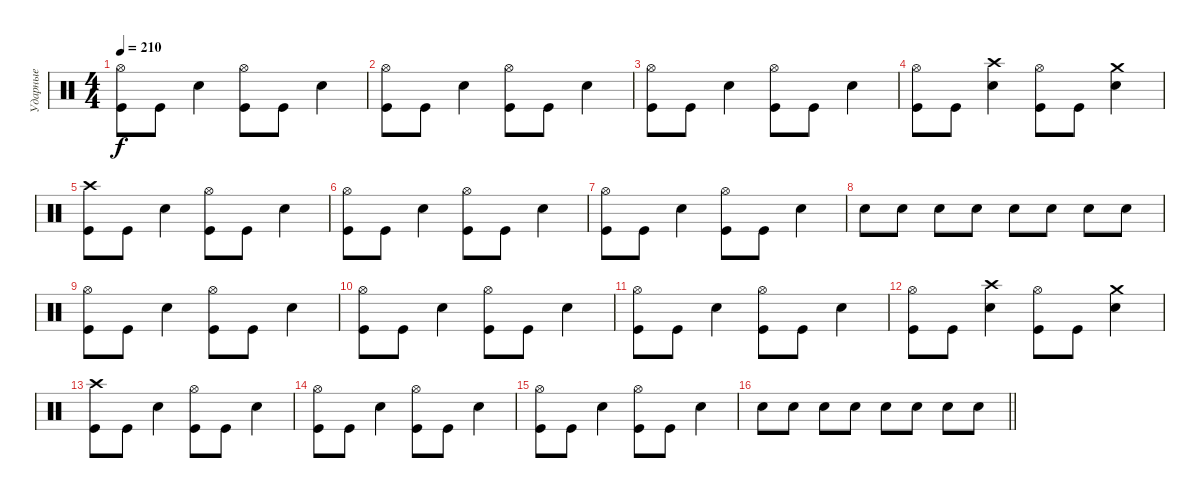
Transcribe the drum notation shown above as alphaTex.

\track ("Ударные" "Ударные") {instrument percussion}
\staff {score}
\articulation defaults
\ts (4 4)
\tempo 210
\clef neutral
\ks c
("Hi-Hat (open)" "Kick (hit)").8{dy f} "Kick (hit)".8 "Snare (hit) 2".4 ("Hi-Hat (open)" "Kick (hit)").8 "Kick (hit)".8 "Snare (hit) 2".4 |
("Hi-Hat (open)" "Kick (hit)").8 "Kick (hit)".8 "Snare (hit) 2".4 ("Hi-Hat (open)" "Kick (hit)").8 "Kick (hit)".8 "Snare (hit) 2".4 |
("Hi-Hat (open)" "Kick (hit)").8 "Kick (hit)".8 "Snare (hit) 2".4 ("Hi-Hat (open)" "Kick (hit)").8 "Kick (hit)".8 "Snare (hit) 2".4 |
("Hi-Hat (open)" "Kick (hit)").8 "Kick (hit)".8 ("Crash high (hit)" "Snare (hit) 2").4 ("Hi-Hat (open)" "Kick (hit)").8 "Kick (hit)".8 ("Crash medium (hit)" "Snare (hit) 2").4 |
("Crash high (hit)" "Kick (hit)").8 "Kick (hit)".8 "Snare (hit) 2".4 ("Hi-Hat (open)" "Kick (hit)").8 "Kick (hit)".8 "Snare (hit) 2".4 |
("Hi-Hat (open)" "Kick (hit)").8 "Kick (hit)".8 "Snare (hit) 2".4 ("Hi-Hat (open)" "Kick (hit)").8 "Kick (hit)".8 "Snare (hit) 2".4 |
("Hi-Hat (open)" "Kick (hit)").8 "Kick (hit)".8 "Snare (hit) 2".4 ("Hi-Hat (open)" "Kick (hit)").8 "Kick (hit)".8 "Snare (hit) 2".4 |
"Snare (hit) 2".8 "Snare (hit) 2".8 "Snare (hit) 2".8 "Snare (hit) 2".8 "Snare (hit) 2".8 "Snare (hit) 2".8 "Snare (hit) 2".8 "Snare (hit) 2".8 |
("Hi-Hat (open)" "Kick (hit)").8 "Kick (hit)".8 "Snare (hit) 2".4 ("Hi-Hat (open)" "Kick (hit)").8 "Kick (hit)".8 "Snare (hit) 2".4 |
("Hi-Hat (open)" "Kick (hit)").8 "Kick (hit)".8 "Snare (hit) 2".4 ("Hi-Hat (open)" "Kick (hit)").8 "Kick (hit)".8 "Snare (hit) 2".4 |
("Hi-Hat (open)" "Kick (hit)").8 "Kick (hit)".8 "Snare (hit) 2".4 ("Hi-Hat (open)" "Kick (hit)").8 "Kick (hit)".8 "Snare (hit) 2".4 |
("Hi-Hat (open)" "Kick (hit)").8 "Kick (hit)".8 ("Crash high (hit)" "Snare (hit) 2").4 ("Hi-Hat (open)" "Kick (hit)").8 "Kick (hit)".8 ("Crash medium (hit)" "Snare (hit) 2").4 |
("Crash high (hit)" "Kick (hit)").8 "Kick (hit)".8 "Snare (hit) 2".4 ("Hi-Hat (open)" "Kick (hit)").8 "Kick (hit)".8 "Snare (hit) 2".4 |
("Hi-Hat (open)" "Kick (hit)").8 "Kick (hit)".8 "Snare (hit) 2".4 ("Hi-Hat (open)" "Kick (hit)").8 "Kick (hit)".8 "Snare (hit) 2".4 |
("Hi-Hat (open)" "Kick (hit)").8 "Kick (hit)".8 "Snare (hit) 2".4 ("Hi-Hat (open)" "Kick (hit)").8 "Kick (hit)".8 "Snare (hit) 2".4 |
\barLineRight lightlight "Snare (hit) 2".8 "Snare (hit) 2".8 "Snare (hit) 2".8 "Snare (hit) 2".8 "Snare (hit) 2".8 "Snare (hit) 2".8 "Snare (hit) 2".8 "Snare (hit) 2".8
